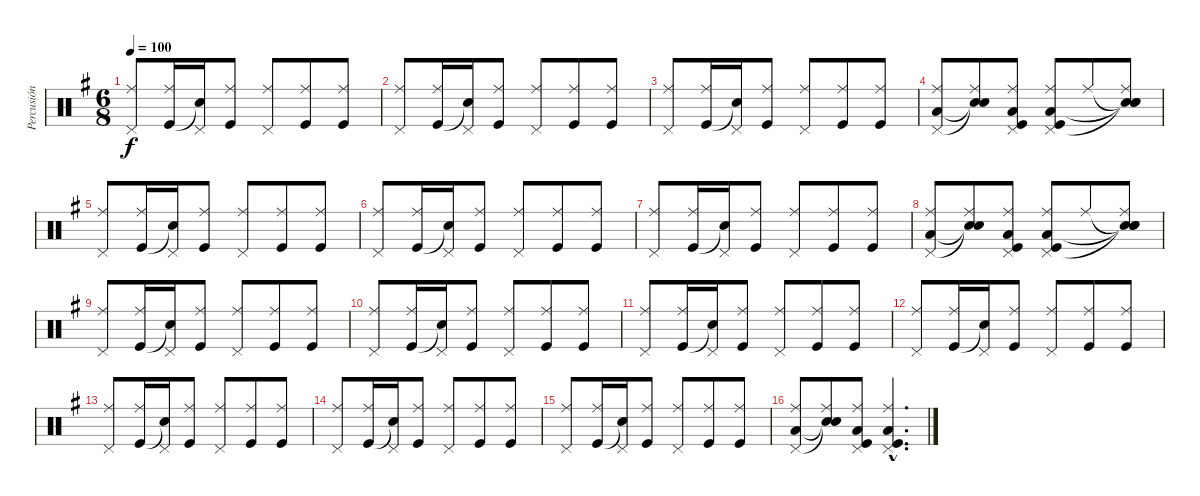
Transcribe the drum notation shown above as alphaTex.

\track ("Percusión" "Percusión") {instrument percussion}
\staff {score}
\articulation defaults
\ts (6 8)
\tempo 100
\clef neutral
\ks g
("Pedal Hi-Hat (hit)" "Ride (middle)").8{dy f} ("Kick (hit)" "Ride (middle)").16 ("Snare (hit)"{t} "Pedal Hi-Hat (hit)").16 ("Kick (hit)" "Ride (middle)").8 ("Pedal Hi-Hat (hit)" "Ride (middle)").8 ("Kick (hit)" "Ride (middle)").8 ("Kick (hit)" "Ride (middle)").8 |
("Pedal Hi-Hat (hit)" "Ride (middle)").8 ("Kick (hit)" "Ride (middle)").16 ("Snare (hit)"{t} "Pedal Hi-Hat (hit)").16 ("Kick (hit)" "Ride (middle)").8 ("Pedal Hi-Hat (hit)" "Ride (middle)").8 ("Kick (hit)" "Ride (middle)").8 ("Kick (hit)" "Ride (middle)").8 |
("Pedal Hi-Hat (hit)" "Ride (middle)").8 ("Kick (hit)" "Ride (middle)").16 ("Snare (hit)"{t} "Pedal Hi-Hat (hit)").16 ("Kick (hit)" "Ride (middle)").8 ("Pedal Hi-Hat (hit)" "Ride (middle)").8 ("Kick (hit)" "Ride (middle)").8 ("Kick (hit)" "Ride (middle)").8 |
("Pedal Hi-Hat (hit)" "Ride (middle)" "Low Tom (hit)").8 ("Snare (hit)"{t} "Ride (middle)" "Snare (hit)"{t}).8 ("Kick (hit)" "Pedal Hi-Hat (hit)" "Ride (middle)" "Low Tom (hit)").8 ("Kick (hit)" "Pedal Hi-Hat (hit)" "Ride (middle)" "Low Tom (hit)").8 "Ride (middle)".8 ("Snare (hit)"{t} "Snare (hit)"{t} "Ride (middle)" "Snare (hit)"{t}).8 |
("Pedal Hi-Hat (hit)" "Ride (middle)").8 ("Kick (hit)" "Ride (middle)").16 ("Snare (hit)"{t} "Pedal Hi-Hat (hit)").16 ("Kick (hit)" "Ride (middle)").8 ("Pedal Hi-Hat (hit)" "Ride (middle)").8 ("Kick (hit)" "Ride (middle)").8 ("Kick (hit)" "Ride (middle)").8 |
("Pedal Hi-Hat (hit)" "Ride (middle)").8 ("Kick (hit)" "Ride (middle)").16 ("Snare (hit)"{t} "Pedal Hi-Hat (hit)").16 ("Kick (hit)" "Ride (middle)").8 ("Pedal Hi-Hat (hit)" "Ride (middle)").8 ("Kick (hit)" "Ride (middle)").8 ("Kick (hit)" "Ride (middle)").8 |
("Pedal Hi-Hat (hit)" "Ride (middle)").8 ("Kick (hit)" "Ride (middle)").16 ("Snare (hit)"{t} "Pedal Hi-Hat (hit)").16 ("Kick (hit)" "Ride (middle)").8 ("Pedal Hi-Hat (hit)" "Ride (middle)").8 ("Kick (hit)" "Ride (middle)").8 ("Kick (hit)" "Ride (middle)").8 |
("Pedal Hi-Hat (hit)" "Ride (middle)" "Low Tom (hit)").8 ("Snare (hit)"{t} "Ride (middle)" "Snare (hit)"{t}).8 ("Kick (hit)" "Pedal Hi-Hat (hit)" "Ride (middle)" "Low Tom (hit)").8 ("Kick (hit)" "Pedal Hi-Hat (hit)" "Ride (middle)" "Low Tom (hit)").8 "Ride (middle)".8 ("Snare (hit)"{t} "Snare (hit)"{t} "Ride (middle)" "Snare (hit)"{t}).8 |
("Pedal Hi-Hat (hit)" "Ride (middle)").8 ("Kick (hit)" "Ride (middle)").16 ("Snare (hit)"{t} "Pedal Hi-Hat (hit)").16 ("Kick (hit)" "Ride (middle)").8 ("Pedal Hi-Hat (hit)" "Ride (middle)").8 ("Kick (hit)" "Ride (middle)").8 ("Kick (hit)" "Ride (middle)").8 |
("Pedal Hi-Hat (hit)" "Ride (middle)").8 ("Kick (hit)" "Ride (middle)").16 ("Snare (hit)"{t} "Pedal Hi-Hat (hit)").16 ("Kick (hit)" "Ride (middle)").8 ("Pedal Hi-Hat (hit)" "Ride (middle)").8 ("Kick (hit)" "Ride (middle)").8 ("Kick (hit)" "Ride (middle)").8 |
("Pedal Hi-Hat (hit)" "Ride (middle)").8 ("Kick (hit)" "Ride (middle)").16 ("Snare (hit)"{t} "Pedal Hi-Hat (hit)").16 ("Kick (hit)" "Ride (middle)").8 ("Pedal Hi-Hat (hit)" "Ride (middle)").8 ("Kick (hit)" "Ride (middle)").8 ("Kick (hit)" "Ride (middle)").8 |
("Pedal Hi-Hat (hit)" "Ride (middle)").8 ("Kick (hit)" "Ride (middle)").16 ("Snare (hit)"{t} "Pedal Hi-Hat (hit)").16 ("Kick (hit)" "Ride (middle)").8 ("Pedal Hi-Hat (hit)" "Ride (middle)").8 ("Kick (hit)" "Ride (middle)").8 ("Kick (hit)" "Ride (middle)").8 |
("Pedal Hi-Hat (hit)" "Ride (middle)").8 ("Kick (hit)" "Ride (middle)").16 ("Snare (hit)"{t} "Pedal Hi-Hat (hit)").16 ("Kick (hit)" "Ride (middle)").8 ("Pedal Hi-Hat (hit)" "Ride (middle)").8 ("Kick (hit)" "Ride (middle)").8 ("Kick (hit)" "Ride (middle)").8 |
("Pedal Hi-Hat (hit)" "Ride (middle)").8 ("Kick (hit)" "Ride (middle)").16 ("Snare (hit)"{t} "Pedal Hi-Hat (hit)").16 ("Kick (hit)" "Ride (middle)").8 ("Pedal Hi-Hat (hit)" "Ride (middle)").8 ("Kick (hit)" "Ride (middle)").8 ("Kick (hit)" "Ride (middle)").8 |
("Pedal Hi-Hat (hit)" "Ride (middle)").8 ("Kick (hit)" "Ride (middle)").16 ("Snare (hit)"{t} "Pedal Hi-Hat (hit)").16 ("Kick (hit)" "Ride (middle)").8 ("Pedal Hi-Hat (hit)" "Ride (middle)").8 ("Kick (hit)" "Ride (middle)").8 ("Kick (hit)" "Ride (middle)").8 |
("Pedal Hi-Hat (hit)" "Ride (middle)" "Low Tom (hit)").8 ("Snare (hit)"{t} "Ride (middle)" "Snare (hit)"{t}).8 ("Kick (hit)" "Pedal Hi-Hat (hit)" "Ride (middle)" "Low Tom (hit)").8 ("Kick (hit)"{hac} "Pedal Hi-Hat (hit)"{hac} "Ride (middle)"{hac} "Low Tom (hit)"{hac}).4{d}
